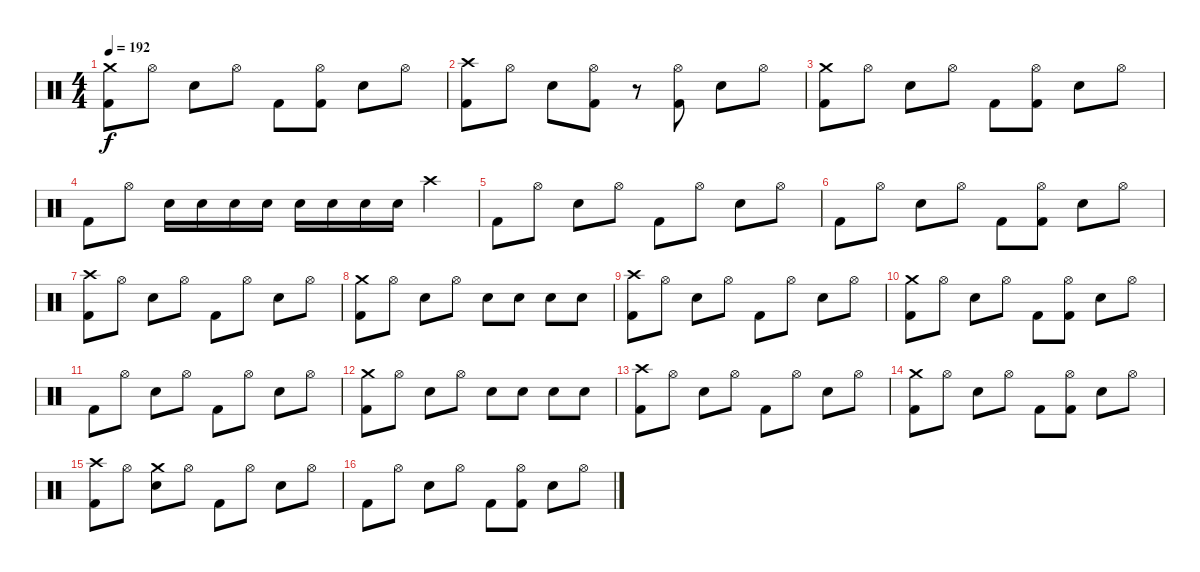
\track "" {instrument percussion}
\staff {score}
\articulation defaults
\ts (4 4)
\tempo 192
\clef neutral
\ks c
("Crash medium (hit)" "Kick (hit) 2").8{dy f} "Hi-Hat (open)".8 "Snare (hit) 2".8 "Hi-Hat (open)".8 "Kick (hit) 2".8 ("Hi-Hat (open)" "Kick (hit) 2").8 "Snare (hit) 2".8 "Hi-Hat (open)".8 |
("Crash high (hit)" "Kick (hit) 2").8 "Hi-Hat (open)".8 "Snare (hit) 2".8 ("Hi-Hat (open)" "Kick (hit) 2").8 r.8 ("Hi-Hat (open)" "Kick (hit) 2").8 "Snare (hit) 2".8 "Hi-Hat (open)".8 |
("Crash medium (hit)" "Kick (hit) 2").8 "Hi-Hat (open)".8 "Snare (hit) 2".8 "Hi-Hat (open)".8 "Kick (hit) 2".8 ("Hi-Hat (open)" "Kick (hit) 2").8 "Snare (hit) 2".8 "Hi-Hat (open)".8 |
"Kick (hit) 2".8 "Hi-Hat (open)".8 "Snare (hit) 2".16 "Snare (hit) 2".16 "Snare (hit) 2".16 "Snare (hit) 2".16 "Snare (hit) 2".16 "Snare (hit) 2".16 "Snare (hit) 2".16 "Snare (hit) 2".16 "Crash high (hit)".4 |
"Kick (hit) 2".8 "Hi-Hat (open)".8 "Snare (hit) 2".8 "Hi-Hat (open)".8 "Kick (hit) 2".8 "Hi-Hat (open)".8 "Snare (hit) 2".8 "Hi-Hat (open)".8 |
"Kick (hit) 2".8 "Hi-Hat (open)".8 "Snare (hit) 2".8 "Hi-Hat (open)".8 "Kick (hit) 2".8 ("Hi-Hat (open)" "Kick (hit) 2").8 "Snare (hit) 2".8 "Hi-Hat (open)".8 |
("Crash high (hit)" "Kick (hit) 2").8 "Hi-Hat (open)".8 "Snare (hit) 2".8 "Hi-Hat (open)".8 "Kick (hit) 2".8 "Hi-Hat (open)".8 "Snare (hit) 2".8 "Hi-Hat (open)".8 |
("Crash medium (hit)" "Kick (hit) 2").8 "Hi-Hat (open)".8 "Snare (hit) 2".8 "Hi-Hat (open)".8 "Electric Snare (hit)".8 "Electric Snare (hit)".8 "Snare (hit) 2".8 "Snare (hit) 2".8 |
("Crash high (hit)" "Kick (hit) 2").8 "Hi-Hat (open)".8 "Snare (hit) 2".8 "Hi-Hat (open)".8 "Kick (hit) 2".8 "Hi-Hat (open)".8 "Snare (hit) 2".8 "Hi-Hat (open)".8 |
("Crash medium (hit)" "Kick (hit) 2").8 "Hi-Hat (open)".8 "Snare (hit) 2".8 "Hi-Hat (open)".8 "Kick (hit) 2".8 ("Hi-Hat (open)" "Kick (hit) 2").8 "Snare (hit) 2".8 "Hi-Hat (open)".8 |
"Kick (hit) 2".8 "Hi-Hat (open)".8 "Snare (hit) 2".8 "Hi-Hat (open)".8 "Kick (hit) 2".8 "Hi-Hat (open)".8 "Snare (hit) 2".8 "Hi-Hat (open)".8 |
("Crash medium (hit)" "Kick (hit) 2").8 "Hi-Hat (open)".8 "Snare (hit) 2".8 "Hi-Hat (open)".8 "Electric Snare (hit)".8 "Electric Snare (hit)".8 "Snare (hit) 2".8 "Snare (hit) 2".8 |
("Crash high (hit)" "Kick (hit) 2").8 "Hi-Hat (open)".8 "Snare (hit) 2".8 "Hi-Hat (open)".8 "Kick (hit) 2".8 "Hi-Hat (open)".8 "Snare (hit) 2".8 "Hi-Hat (open)".8 |
("Crash medium (hit)" "Kick (hit) 2").8 "Hi-Hat (open)".8 "Snare (hit) 2".8 "Hi-Hat (open)".8 "Kick (hit) 2".8 ("Hi-Hat (open)" "Kick (hit) 2").8 "Snare (hit) 2".8 "Hi-Hat (open)".8 |
("Crash high (hit)" "Kick (hit) 2").8 "Hi-Hat (open)".8 ("Crash medium (hit)" "Snare (hit) 2").8 "Hi-Hat (open)".8 "Kick (hit) 2".8 "Hi-Hat (open)".8 "Snare (hit) 2".8 "Hi-Hat (open)".8 |
"Kick (hit) 2".8 "Hi-Hat (open)".8 "Snare (hit) 2".8 "Hi-Hat (open)".8 "Kick (hit) 2".8 ("Hi-Hat (open)" "Kick (hit) 2").8 "Snare (hit) 2".8 "Hi-Hat (open)".8
